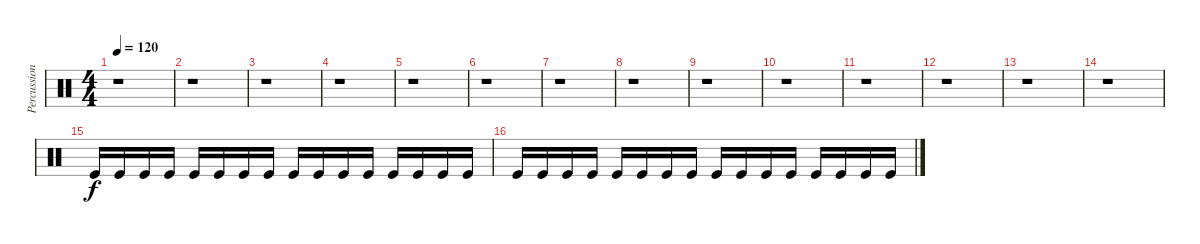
\track ("Percussion" "Percussion") {instrument percussion}
\staff {score}
\articulation defaults
\ts (4 4)
\tempo 120
\clef neutral
\ks c
r.1{dy f} |
r.1 |
r.1 |
r.1 |
r.1 |
r.1 |
r.1 |
r.1 |
r.1 |
r.1 |
r.1 |
r.1 |
r.1 |
r.1 |
"Kick (hit)".16 "Kick (hit)".16 "Kick (hit)".16 "Kick (hit)".16 "Kick (hit)".16 "Kick (hit)".16 "Kick (hit)".16 "Kick (hit)".16 "Kick (hit)".16 "Kick (hit)".16 "Kick (hit)".16 "Kick (hit)".16 "Kick (hit)".16 "Kick (hit)".16 "Kick (hit)".16 "Kick (hit)".16 |
"Kick (hit)".16 "Kick (hit)".16 "Kick (hit)".16 "Kick (hit)".16 "Kick (hit)".16 "Kick (hit)".16 "Kick (hit)".16 "Kick (hit)".16 "Kick (hit)".16 "Kick (hit)".16 "Kick (hit)".16 "Kick (hit)".16 "Kick (hit)".16 "Kick (hit)".16 "Kick (hit)".16 "Kick (hit)".16
